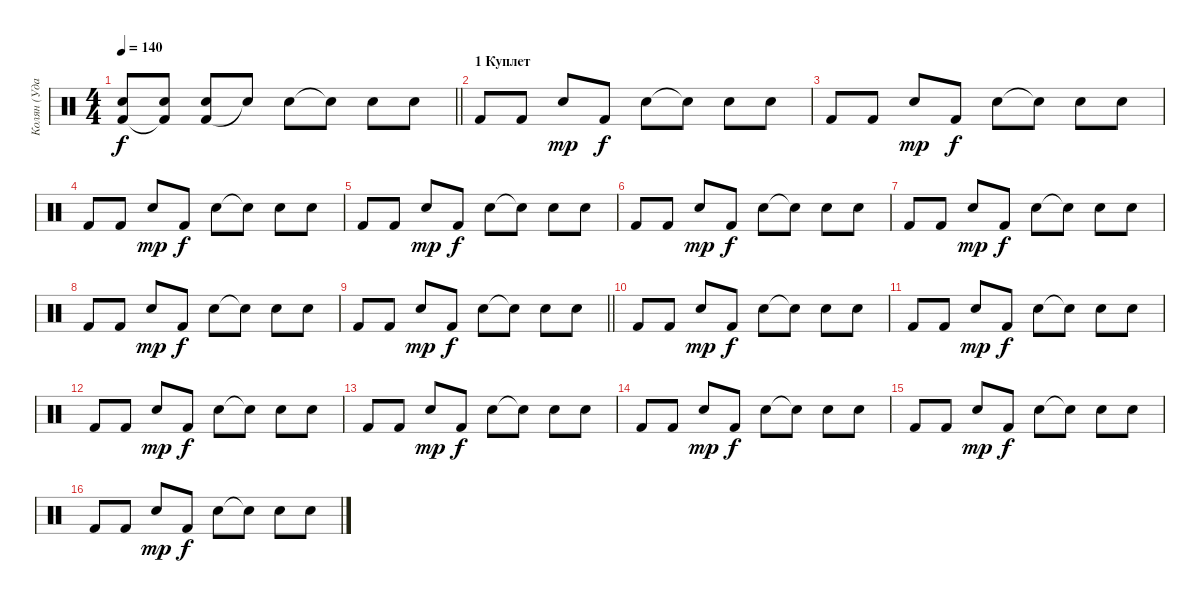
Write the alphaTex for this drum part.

\track ("Колян (Ударные)" "Колян (Уда") {instrument percussion}
\staff {score}
\articulation defaults
\ts (4 4)
\tempo 140
\clef neutral
\barLineRight lightlight
\ks c
("Kick (hit) 2" "Snare (hit) 2").8{dy f} ("Kick (hit) 2"{t} "Snare (hit) 2").8 ("Kick (hit) 2" "Snare (hit) 2").8 "Snare (hit)"{t}.8 "Snare (hit) 2".8 "Snare (hit)"{t}.8 "Snare (hit) 2".8 "Snare (hit) 2".8 |
\section ("" "1 Куплет")
"Kick (hit) 2".8 "Kick (hit) 2".8 "Snare (hit) 2".8{dy mp} "Kick (hit) 2".8{dy f} "Snare (hit) 2".8 "Snare (hit)"{t}.8 "Snare (hit) 2".8 "Snare (hit) 2".8 |
"Kick (hit) 2".8 "Kick (hit) 2".8 "Snare (hit) 2".8{dy mp} "Kick (hit) 2".8{dy f} "Snare (hit) 2".8 "Snare (hit)"{t}.8 "Snare (hit) 2".8 "Snare (hit) 2".8 |
"Kick (hit) 2".8 "Kick (hit) 2".8 "Snare (hit) 2".8{dy mp} "Kick (hit) 2".8{dy f} "Snare (hit) 2".8 "Snare (hit)"{t}.8 "Snare (hit) 2".8 "Snare (hit) 2".8 |
"Kick (hit) 2".8 "Kick (hit) 2".8 "Snare (hit) 2".8{dy mp} "Kick (hit) 2".8{dy f} "Snare (hit) 2".8 "Snare (hit)"{t}.8 "Snare (hit) 2".8 "Snare (hit) 2".8 |
"Kick (hit) 2".8 "Kick (hit) 2".8 "Snare (hit) 2".8{dy mp} "Kick (hit) 2".8{dy f} "Snare (hit) 2".8 "Snare (hit)"{t}.8 "Snare (hit) 2".8 "Snare (hit) 2".8 |
"Kick (hit) 2".8 "Kick (hit) 2".8 "Snare (hit) 2".8{dy mp} "Kick (hit) 2".8{dy f} "Snare (hit) 2".8 "Snare (hit)"{t}.8 "Snare (hit) 2".8 "Snare (hit) 2".8 |
"Kick (hit) 2".8 "Kick (hit) 2".8 "Snare (hit) 2".8{dy mp} "Kick (hit) 2".8{dy f} "Snare (hit) 2".8 "Snare (hit)"{t}.8 "Snare (hit) 2".8 "Snare (hit) 2".8 |
\barLineRight lightlight "Kick (hit) 2".8 "Kick (hit) 2".8 "Snare (hit) 2".8{dy mp} "Kick (hit) 2".8{dy f} "Snare (hit) 2".8 "Snare (hit)"{t}.8 "Snare (hit) 2".8 "Snare (hit) 2".8
|
"Kick (hit) 2".8 "Kick (hit) 2".8 "Snare (hit) 2".8{dy mp} "Kick (hit) 2".8{dy f} "Snare (hit) 2".8 "Snare (hit)"{t}.8 "Snare (hit) 2".8 "Snare (hit) 2".8 |
"Kick (hit) 2".8 "Kick (hit) 2".8 "Snare (hit) 2".8{dy mp} "Kick (hit) 2".8{dy f} "Snare (hit) 2".8 "Snare (hit)"{t}.8 "Snare (hit) 2".8 "Snare (hit) 2".8 |
"Kick (hit) 2".8 "Kick (hit) 2".8 "Snare (hit) 2".8{dy mp} "Kick (hit) 2".8{dy f} "Snare (hit) 2".8 "Snare (hit)"{t}.8 "Snare (hit) 2".8 "Snare (hit) 2".8 |
"Kick (hit) 2".8 "Kick (hit) 2".8 "Snare (hit) 2".8{dy mp} "Kick (hit) 2".8{dy f} "Snare (hit) 2".8 "Snare (hit)"{t}.8 "Snare (hit) 2".8 "Snare (hit) 2".8 |
"Kick (hit) 2".8 "Kick (hit) 2".8 "Snare (hit) 2".8{dy mp} "Kick (hit) 2".8{dy f} "Snare (hit) 2".8 "Snare (hit)"{t}.8 "Snare (hit) 2".8 "Snare (hit) 2".8 |
"Kick (hit) 2".8 "Kick (hit) 2".8 "Snare (hit) 2".8{dy mp} "Kick (hit) 2".8{dy f} "Snare (hit) 2".8 "Snare (hit)"{t}.8 "Snare (hit) 2".8 "Snare (hit) 2".8 |
"Kick (hit) 2".8 "Kick (hit) 2".8 "Snare (hit) 2".8{dy mp} "Kick (hit) 2".8{dy f} "Snare (hit) 2".8 "Snare (hit)"{t}.8 "Snare (hit) 2".8 "Snare (hit) 2".8
